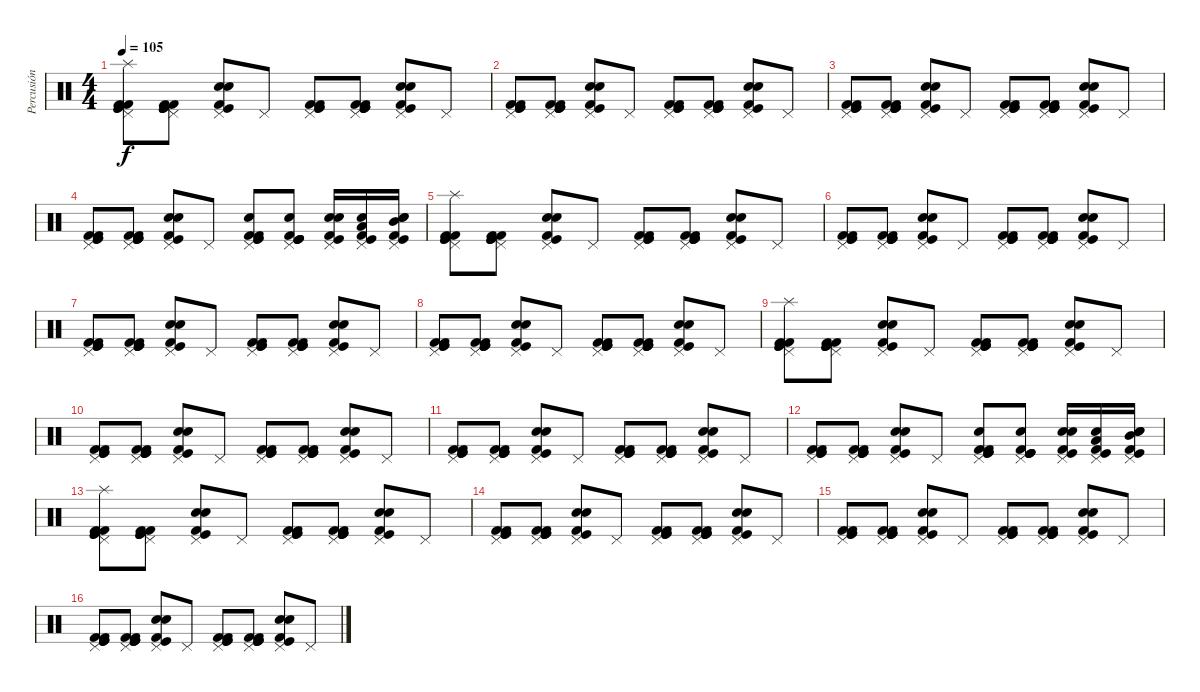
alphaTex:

\track ("Percusión" "Percusión") {instrument percussion}
\staff {score}
\articulation defaults
\ts (4 4)
\tempo 105
\clef neutral
\ks c
("Kick (hit) 2" "Kick (hit)" "Pedal Hi-Hat (hit)" "Splash (hit)" "Kick (hit) 2" "Kick (hit)").8{dy f} ("Kick (hit) 2" "Kick (hit)" "Pedal Hi-Hat (hit)" "Kick (hit) 2" "Kick (hit)" "Kick (hit)").8 ("Snare (hit) 2" "Pedal Hi-Hat (hit)" "Electric Snare (hit)" "Kick (hit)" "Kick (hit) 2").8 "Pedal Hi-Hat (hit)".8 ("Kick (hit) 2" "Kick (hit)" "Pedal Hi-Hat (hit)" "Kick (hit) 2" "Kick (hit)").8 ("Kick (hit) 2" "Kick (hit)" "Pedal Hi-Hat (hit)" "Kick (hit) 2" "Kick (hit)" "Kick (hit)").8 ("Snare (hit) 2" "Pedal Hi-Hat (hit)" "Electric Snare (hit)" "Kick (hit)" "Kick (hit) 2").8 "Pedal Hi-Hat (hit)".8 |
("Kick (hit) 2" "Kick (hit)" "Pedal Hi-Hat (hit)" "Kick (hit) 2" "Kick (hit)").8 ("Kick (hit) 2" "Kick (hit)" "Pedal Hi-Hat (hit)" "Kick (hit) 2" "Kick (hit)" "Kick (hit)").8 ("Snare (hit) 2" "Pedal Hi-Hat (hit)" "Electric Snare (hit)" "Kick (hit)" "Kick (hit) 2").8 "Pedal Hi-Hat (hit)".8 ("Kick (hit) 2" "Kick (hit)" "Pedal Hi-Hat (hit)" "Kick (hit) 2" "Kick (hit)").8 ("Kick (hit) 2" "Kick (hit)" "Pedal Hi-Hat (hit)" "Kick (hit) 2" "Kick (hit)" "Kick (hit)").8 ("Snare (hit) 2" "Pedal Hi-Hat (hit)" "Electric Snare (hit)" "Kick (hit)" "Kick (hit) 2").8 "Pedal Hi-Hat (hit)".8 |
("Kick (hit) 2" "Kick (hit)" "Pedal Hi-Hat (hit)" "Kick (hit) 2" "Kick (hit)").8 ("Kick (hit) 2" "Kick (hit)" "Pedal Hi-Hat (hit)" "Kick (hit) 2" "Kick (hit)" "Kick (hit)").8 ("Snare (hit) 2" "Pedal Hi-Hat (hit)" "Electric Snare (hit)" "Kick (hit)" "Kick (hit) 2").8 "Pedal Hi-Hat (hit)".8 ("Kick (hit) 2" "Kick (hit)" "Pedal Hi-Hat (hit)" "Kick (hit) 2" "Kick (hit)").8 ("Kick (hit) 2" "Kick (hit)" "Pedal Hi-Hat (hit)" "Kick (hit) 2" "Kick (hit)" "Kick (hit)").8 ("Snare (hit) 2" "Pedal Hi-Hat (hit)" "Electric Snare (hit)" "Kick (hit)" "Kick (hit) 2").8 "Pedal Hi-Hat (hit)".8 |
("Kick (hit) 2" "Kick (hit)" "Pedal Hi-Hat (hit)" "Kick (hit) 2" "Kick (hit)").8 ("Kick (hit) 2" "Kick (hit)" "Pedal Hi-Hat (hit)" "Kick (hit) 2" "Kick (hit)" "Kick (hit)").8 ("Snare (hit) 2" "Pedal Hi-Hat (hit)" "Electric Snare (hit)" "Kick (hit)" "Kick (hit) 2").8 "Pedal Hi-Hat (hit)".8 ("Kick (hit) 2" "Kick (hit)" "Pedal Hi-Hat (hit)" "Snare (hit) 2" "Kick (hit) 2" "Kick (hit)").8 ("Kick (hit) 2" "Kick (hit)" "Pedal Hi-Hat (hit)" "Snare (hit) 2" "Kick (hit)" "Kick (hit)").8 ("Snare (hit) 2" "Pedal Hi-Hat (hit)" "Electric Snare (hit)" "Kick (hit)" "Kick (hit) 2").16 ("Low Tom (hit)" "Pedal Hi-Hat (hit)" "Electric Snare (hit)" "Kick (hit)" "Kick (hit) 2").16 ("Snare (hit) 2" "Mid Tom (hit)" "Pedal Hi-Hat (hit)" "Electric Snare (hit)" "Kick (hit)" "Kick (hit) 2").16 |
("Kick (hit) 2" "Kick (hit)" "Pedal Hi-Hat (hit)" "Splash (hit)" "Kick (hit) 2" "Kick (hit)").8 ("Kick (hit) 2" "Kick (hit)" "Pedal Hi-Hat (hit)" "Kick (hit) 2" "Kick (hit)" "Kick (hit)").8 ("Snare (hit) 2" "Pedal Hi-Hat (hit)" "Electric Snare (hit)" "Kick (hit)" "Kick (hit) 2").8 "Pedal Hi-Hat (hit)".8 ("Kick (hit) 2" "Kick (hit)" "Pedal Hi-Hat (hit)" "Kick (hit) 2" "Kick (hit)").8 ("Kick (hit) 2" "Kick (hit)" "Pedal Hi-Hat (hit)" "Kick (hit) 2" "Kick (hit)" "Kick (hit)").8 ("Snare (hit) 2" "Pedal Hi-Hat (hit)" "Electric Snare (hit)" "Kick (hit)" "Kick (hit) 2").8 "Pedal Hi-Hat (hit)".8 |
("Kick (hit) 2" "Kick (hit)" "Pedal Hi-Hat (hit)" "Kick (hit) 2" "Kick (hit)").8 ("Kick (hit) 2" "Kick (hit)" "Pedal Hi-Hat (hit)" "Kick (hit) 2" "Kick (hit)" "Kick (hit)").8 ("Snare (hit) 2" "Pedal Hi-Hat (hit)" "Electric Snare (hit)" "Kick (hit)" "Kick (hit) 2").8 "Pedal Hi-Hat (hit)".8 ("Kick (hit) 2" "Kick (hit)" "Pedal Hi-Hat (hit)" "Kick (hit) 2" "Kick (hit)").8 ("Kick (hit) 2" "Kick (hit)" "Pedal Hi-Hat (hit)" "Kick (hit) 2" "Kick (hit)" "Kick (hit)").8 ("Snare (hit) 2" "Pedal Hi-Hat (hit)" "Electric Snare (hit)" "Kick (hit)" "Kick (hit) 2").8 "Pedal Hi-Hat (hit)".8 |
("Kick (hit) 2" "Kick (hit)" "Pedal Hi-Hat (hit)" "Kick (hit) 2" "Kick (hit)").8 ("Kick (hit) 2" "Kick (hit)" "Pedal Hi-Hat (hit)" "Kick (hit) 2" "Kick (hit)" "Kick (hit)").8 ("Snare (hit) 2" "Pedal Hi-Hat (hit)" "Electric Snare (hit)" "Kick (hit)" "Kick (hit) 2").8 "Pedal Hi-Hat (hit)".8 ("Kick (hit) 2" "Kick (hit)" "Pedal Hi-Hat (hit)" "Kick (hit) 2" "Kick (hit)").8 ("Kick (hit) 2" "Kick (hit)" "Pedal Hi-Hat (hit)" "Kick (hit) 2" "Kick (hit)" "Kick (hit)").8 ("Snare (hit) 2" "Pedal Hi-Hat (hit)" "Electric Snare (hit)" "Kick (hit)" "Kick (hit) 2").8 "Pedal Hi-Hat (hit)".8 |
("Kick (hit) 2" "Kick (hit)" "Pedal Hi-Hat (hit)" "Kick (hit) 2" "Kick (hit)").8 ("Kick (hit) 2" "Kick (hit)" "Pedal Hi-Hat (hit)" "Kick (hit) 2" "Kick (hit)" "Kick (hit)").8 ("Snare (hit) 2" "Pedal Hi-Hat (hit)" "Electric Snare (hit)" "Kick (hit)" "Kick (hit) 2").8 "Pedal Hi-Hat (hit)".8 ("Kick (hit) 2" "Kick (hit)" "Pedal Hi-Hat (hit)" "Kick (hit) 2" "Kick (hit)").8 ("Kick (hit) 2" "Kick (hit)" "Pedal Hi-Hat (hit)" "Kick (hit) 2" "Kick (hit)" "Kick (hit)").8 ("Snare (hit) 2" "Pedal Hi-Hat (hit)" "Electric Snare (hit)" "Kick (hit)" "Kick (hit) 2").8 "Pedal Hi-Hat (hit)".8 |
("Kick (hit) 2" "Kick (hit)" "Pedal Hi-Hat (hit)" "Splash (hit)" "Kick (hit) 2" "Kick (hit)").8 ("Kick (hit) 2" "Kick (hit)" "Pedal Hi-Hat (hit)" "Kick (hit) 2" "Kick (hit)" "Kick (hit)").8 ("Snare (hit) 2" "Pedal Hi-Hat (hit)" "Electric Snare (hit)" "Kick (hit)" "Kick (hit) 2").8 "Pedal Hi-Hat (hit)".8 ("Kick (hit) 2" "Kick (hit)" "Pedal Hi-Hat (hit)" "Kick (hit) 2" "Kick (hit)").8 ("Kick (hit) 2" "Kick (hit)" "Pedal Hi-Hat (hit)" "Kick (hit) 2" "Kick (hit)" "Kick (hit)").8 ("Snare (hit) 2" "Pedal Hi-Hat (hit)" "Electric Snare (hit)" "Kick (hit)" "Kick (hit) 2").8 "Pedal Hi-Hat (hit)".8 |
("Kick (hit) 2" "Kick (hit)" "Pedal Hi-Hat (hit)" "Kick (hit) 2" "Kick (hit)").8 ("Kick (hit) 2" "Kick (hit)" "Pedal Hi-Hat (hit)" "Kick (hit) 2" "Kick (hit)" "Kick (hit)").8 ("Snare (hit) 2" "Pedal Hi-Hat (hit)" "Electric Snare (hit)" "Kick (hit)" "Kick (hit) 2").8 "Pedal Hi-Hat (hit)".8 ("Kick (hit) 2" "Kick (hit)" "Pedal Hi-Hat (hit)" "Kick (hit) 2" "Kick (hit)").8 ("Kick (hit) 2" "Kick (hit)" "Pedal Hi-Hat (hit)" "Kick (hit) 2" "Kick (hit)" "Kick (hit)").8 ("Snare (hit) 2" "Pedal Hi-Hat (hit)" "Electric Snare (hit)" "Kick (hit)" "Kick (hit) 2").8 "Pedal Hi-Hat (hit)".8 |
("Kick (hit) 2" "Kick (hit)" "Pedal Hi-Hat (hit)" "Kick (hit) 2" "Kick (hit)").8 ("Kick (hit) 2" "Kick (hit)" "Pedal Hi-Hat (hit)" "Kick (hit) 2" "Kick (hit)" "Kick (hit)").8 ("Snare (hit) 2" "Pedal Hi-Hat (hit)" "Electric Snare (hit)" "Kick (hit)" "Kick (hit) 2").8 "Pedal Hi-Hat (hit)".8 ("Kick (hit) 2" "Kick (hit)" "Pedal Hi-Hat (hit)" "Kick (hit) 2" "Kick (hit)").8 ("Kick (hit) 2" "Kick (hit)" "Pedal Hi-Hat (hit)" "Kick (hit) 2" "Kick (hit)" "Kick (hit)").8 ("Snare (hit) 2" "Pedal Hi-Hat (hit)" "Electric Snare (hit)" "Kick (hit)" "Kick (hit) 2").8 "Pedal Hi-Hat (hit)".8 |
("Kick (hit) 2" "Kick (hit)" "Pedal Hi-Hat (hit)" "Kick (hit) 2" "Kick (hit)").8 ("Kick (hit) 2" "Kick (hit)" "Pedal Hi-Hat (hit)" "Kick (hit) 2" "Kick (hit)" "Kick (hit)").8 ("Snare (hit) 2" "Pedal Hi-Hat (hit)" "Electric Snare (hit)" "Kick (hit)" "Kick (hit) 2").8 "Pedal Hi-Hat (hit)".8 ("Kick (hit) 2" "Kick (hit)" "Pedal Hi-Hat (hit)" "Snare (hit) 2" "Kick (hit) 2" "Kick (hit)").8 ("Kick (hit) 2" "Kick (hit)" "Pedal Hi-Hat (hit)" "Snare (hit) 2" "Kick (hit)" "Kick (hit)").8 ("Snare (hit) 2" "Pedal Hi-Hat (hit)" "Electric Snare (hit)" "Kick (hit)" "Kick (hit) 2").16 ("Low Tom (hit)" "Pedal Hi-Hat (hit)" "Electric Snare (hit)" "Kick (hit)" "Kick (hit) 2").16 ("Snare (hit) 2" "Mid Tom (hit)" "Pedal Hi-Hat (hit)" "Electric Snare (hit)" "Kick (hit)" "Kick (hit) 2").16 |
("Kick (hit) 2" "Kick (hit)" "Pedal Hi-Hat (hit)" "Splash (hit)" "Kick (hit) 2" "Kick (hit)").8 ("Kick (hit) 2" "Kick (hit)" "Pedal Hi-Hat (hit)" "Kick (hit) 2" "Kick (hit)" "Kick (hit)").8 ("Snare (hit) 2" "Pedal Hi-Hat (hit)" "Electric Snare (hit)" "Kick (hit)" "Kick (hit) 2").8 "Pedal Hi-Hat (hit)".8 ("Kick (hit) 2" "Kick (hit)" "Pedal Hi-Hat (hit)" "Kick (hit) 2" "Kick (hit)").8 ("Kick (hit) 2" "Kick (hit)" "Pedal Hi-Hat (hit)" "Kick (hit) 2" "Kick (hit)" "Kick (hit)").8 ("Snare (hit) 2" "Pedal Hi-Hat (hit)" "Electric Snare (hit)" "Kick (hit)" "Kick (hit) 2").8 "Pedal Hi-Hat (hit)".8 |
("Kick (hit) 2" "Kick (hit)" "Pedal Hi-Hat (hit)" "Kick (hit) 2" "Kick (hit)").8 ("Kick (hit) 2" "Kick (hit)" "Pedal Hi-Hat (hit)" "Kick (hit) 2" "Kick (hit)" "Kick (hit)").8 ("Snare (hit) 2" "Pedal Hi-Hat (hit)" "Electric Snare (hit)" "Kick (hit)" "Kick (hit) 2").8 "Pedal Hi-Hat (hit)".8 ("Kick (hit) 2" "Kick (hit)" "Pedal Hi-Hat (hit)" "Kick (hit) 2" "Kick (hit)").8 ("Kick (hit) 2" "Kick (hit)" "Pedal Hi-Hat (hit)" "Kick (hit) 2" "Kick (hit)" "Kick (hit)").8 ("Snare (hit) 2" "Pedal Hi-Hat (hit)" "Electric Snare (hit)" "Kick (hit)" "Kick (hit) 2").8 "Pedal Hi-Hat (hit)".8 |
("Kick (hit) 2" "Kick (hit)" "Pedal Hi-Hat (hit)" "Kick (hit) 2" "Kick (hit)").8 ("Kick (hit) 2" "Kick (hit)" "Pedal Hi-Hat (hit)" "Kick (hit) 2" "Kick (hit)" "Kick (hit)").8 ("Snare (hit) 2" "Pedal Hi-Hat (hit)" "Electric Snare (hit)" "Kick (hit)" "Kick (hit) 2").8 "Pedal Hi-Hat (hit)".8 ("Kick (hit) 2" "Kick (hit)" "Pedal Hi-Hat (hit)" "Kick (hit) 2" "Kick (hit)").8 ("Kick (hit) 2" "Kick (hit)" "Pedal Hi-Hat (hit)" "Kick (hit) 2" "Kick (hit)" "Kick (hit)").8 ("Snare (hit) 2" "Pedal Hi-Hat (hit)" "Electric Snare (hit)" "Kick (hit)" "Kick (hit) 2").8 "Pedal Hi-Hat (hit)".8 |
("Kick (hit) 2" "Kick (hit)" "Pedal Hi-Hat (hit)" "Kick (hit) 2" "Kick (hit)").8 ("Kick (hit) 2" "Kick (hit)" "Pedal Hi-Hat (hit)" "Kick (hit) 2" "Kick (hit)" "Kick (hit)").8 ("Snare (hit) 2" "Pedal Hi-Hat (hit)" "Electric Snare (hit)" "Kick (hit)" "Kick (hit) 2").8 "Pedal Hi-Hat (hit)".8 ("Kick (hit) 2" "Kick (hit)" "Pedal Hi-Hat (hit)" "Kick (hit) 2" "Kick (hit)").8 ("Kick (hit) 2" "Kick (hit)" "Pedal Hi-Hat (hit)" "Kick (hit) 2" "Kick (hit)" "Kick (hit)").8 ("Snare (hit) 2" "Pedal Hi-Hat (hit)" "Electric Snare (hit)" "Kick (hit)" "Kick (hit) 2").8 "Pedal Hi-Hat (hit)".8
